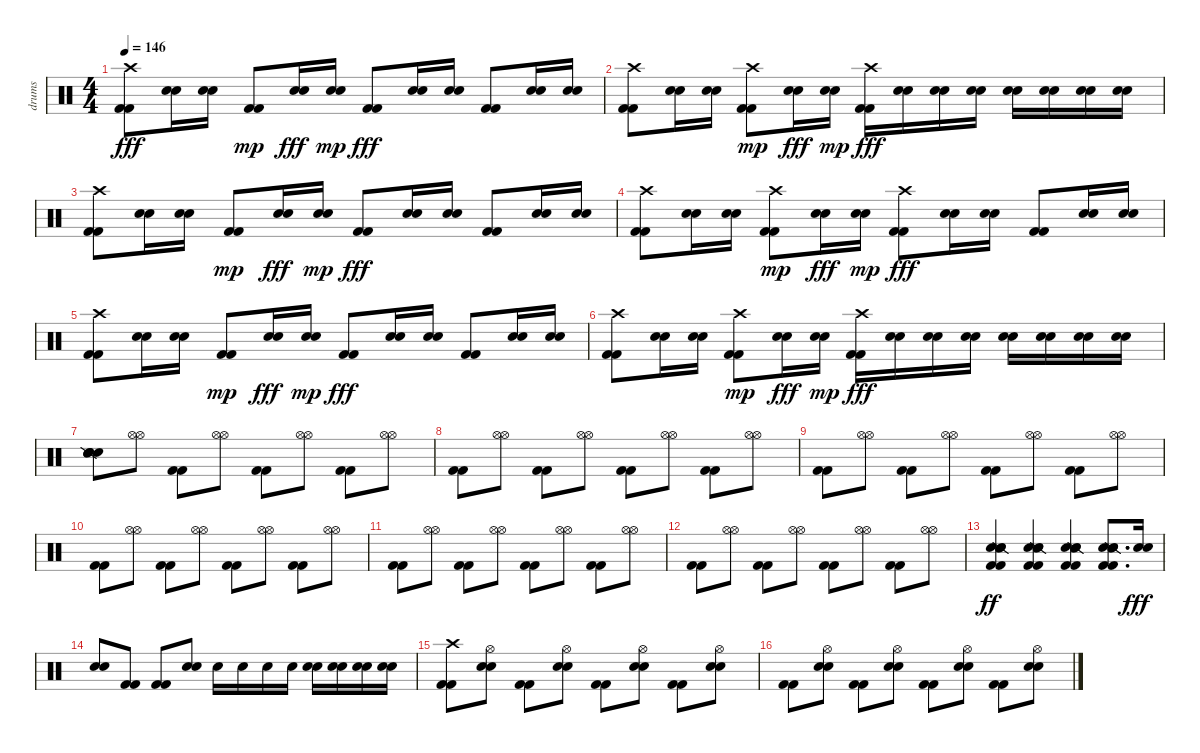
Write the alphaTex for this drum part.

\track ("drums" "drums") {instrument percussion}
\staff {score}
\articulation defaults
\ts (4 4)
\tempo 146
\clef neutral
\ks c
("Crash high (hit)" "Kick (hit) 2" "Kick (hit) 2").8{dy fff} ("Electric Snare (hit)" "Electric Snare (hit)").16 ("Electric Snare (hit)" "Electric Snare (hit)").16 ("Kick (hit) 2" "Kick (hit) 2").8{dy mp} ("Electric Snare (hit)" "Electric Snare (hit)").16{dy fff} ("Electric Snare (hit)" "Electric Snare (hit)").16{dy mp} ("Kick (hit) 2" "Kick (hit) 2").8{dy fff} ("Electric Snare (hit)" "Electric Snare (hit)").16 ("Electric Snare (hit)" "Electric Snare (hit)").16 ("Kick (hit) 2" "Kick (hit) 2").8 ("Electric Snare (hit)" "Electric Snare (hit)").16 ("Electric Snare (hit)" "Electric Snare (hit)").16 |
("Crash high (hit)" "Kick (hit) 2" "Kick (hit) 2").8 ("Electric Snare (hit)" "Electric Snare (hit)").16 ("Electric Snare (hit)" "Electric Snare (hit)").16 ("Crash high (hit)" "Kick (hit) 2" "Kick (hit) 2").8{dy mp} ("Electric Snare (hit)" "Electric Snare (hit)").16{dy fff} ("Electric Snare (hit)" "Electric Snare (hit)").16{dy mp} ("Crash high (hit)" "Kick (hit) 2" "Kick (hit) 2").16{dy fff} ("Electric Snare (hit)" "Electric Snare (hit)").16 ("Electric Snare (hit)" "Electric Snare (hit)").16 ("Electric Snare (hit)" "Electric Snare (hit)").16 ("Electric Snare (hit)" "Electric Snare (hit)").16 ("Electric Snare (hit)" "Electric Snare (hit)").16 ("Electric Snare (hit)" "Electric Snare (hit)").16 ("Electric Snare (hit)" "Electric Snare (hit)").16 |
("Crash high (hit)" "Kick (hit) 2" "Kick (hit) 2").8 ("Electric Snare (hit)" "Electric Snare (hit)").16 ("Electric Snare (hit)" "Electric Snare (hit)").16 ("Kick (hit) 2" "Kick (hit) 2").8{dy mp} ("Electric Snare (hit)" "Electric Snare (hit)").16{dy fff} ("Electric Snare (hit)" "Electric Snare (hit)").16{dy mp} ("Kick (hit) 2" "Kick (hit) 2").8{dy fff} ("Electric Snare (hit)" "Electric Snare (hit)").16 ("Electric Snare (hit)" "Electric Snare (hit)").16 ("Kick (hit) 2" "Kick (hit) 2").8 ("Electric Snare (hit)" "Electric Snare (hit)").16 ("Electric Snare (hit)" "Electric Snare (hit)").16 |
("Crash high (hit)" "Kick (hit) 2" "Kick (hit) 2").8 ("Electric Snare (hit)" "Electric Snare (hit)").16 ("Electric Snare (hit)" "Electric Snare (hit)").16 ("Crash high (hit)" "Kick (hit) 2" "Kick (hit) 2").8{dy mp} ("Electric Snare (hit)" "Electric Snare (hit)").16{dy fff} ("Electric Snare (hit)" "Electric Snare (hit)").16{dy mp} ("Crash high (hit)" "Kick (hit) 2" "Kick (hit) 2").8{dy fff} ("Electric Snare (hit)" "Electric Snare (hit)").16 ("Electric Snare (hit)" "Electric Snare (hit)").16 ("Kick (hit) 2" "Kick (hit) 2").8 ("Electric Snare (hit)" "Electric Snare (hit)").16 ("Electric Snare (hit)" "Electric Snare (hit)").16 |
("Crash high (hit)" "Kick (hit) 2" "Kick (hit) 2").8 ("Electric Snare (hit)" "Electric Snare (hit)").16 ("Electric Snare (hit)" "Electric Snare (hit)").16 ("Kick (hit) 2" "Kick (hit) 2").8{dy mp} ("Electric Snare (hit)" "Electric Snare (hit)").16{dy fff} ("Electric Snare (hit)" "Electric Snare (hit)").16{dy mp} ("Kick (hit) 2" "Kick (hit) 2").8{dy fff} ("Electric Snare (hit)" "Electric Snare (hit)").16 ("Electric Snare (hit)" "Electric Snare (hit)").16 ("Kick (hit) 2" "Kick (hit) 2").8 ("Electric Snare (hit)" "Electric Snare (hit)").16 ("Electric Snare (hit)" "Electric Snare (hit)").16 |
("Crash high (hit)" "Kick (hit) 2" "Kick (hit) 2").8 ("Electric Snare (hit)" "Electric Snare (hit)").16 ("Electric Snare (hit)" "Electric Snare (hit)").16 ("Crash high (hit)" "Kick (hit) 2" "Kick (hit) 2").8{dy mp} ("Electric Snare (hit)" "Electric Snare (hit)").16{dy fff} ("Electric Snare (hit)" "Electric Snare (hit)").16{dy mp} ("Crash high (hit)" "Kick (hit) 2" "Kick (hit) 2").16{dy fff} ("Electric Snare (hit)" "Electric Snare (hit)").16 ("Electric Snare (hit)" "Electric Snare (hit)").16 ("Electric Snare (hit)" "Electric Snare (hit)").16 ("Electric Snare (hit)" "Electric Snare (hit)").16 ("Electric Snare (hit)" "Electric Snare (hit)").16 ("Electric Snare (hit)" "Electric Snare (hit)").16 ("Electric Snare (hit)" "Electric Snare (hit)").16 |
("Electric Snare (hit)" "Electric Snare (hit)" "Snare (side stick) 2" "Snare (side stick) 2" "Electric Snare (hit)").8 ("Hi-Hat (open)" "Hi-Hat (open)").8 ("Kick (hit) 2" "Kick (hit) 2").8 ("Hi-Hat (open)" "Hi-Hat (open)").8 ("Kick (hit) 2" "Kick (hit) 2").8 ("Hi-Hat (open)" "Hi-Hat (open)").8 ("Kick (hit) 2" "Kick (hit) 2").8 ("Hi-Hat (open)" "Hi-Hat (open)").8 |
("Kick (hit) 2" "Kick (hit) 2").8 ("Hi-Hat (open)" "Hi-Hat (open)").8 ("Kick (hit) 2" "Kick (hit) 2").8 ("Hi-Hat (open)" "Hi-Hat (open)").8 ("Kick (hit) 2" "Kick (hit) 2").8 ("Hi-Hat (open)" "Hi-Hat (open)").8 ("Kick (hit) 2" "Kick (hit) 2").8 ("Hi-Hat (open)" "Hi-Hat (open)").8 |
("Kick (hit) 2" "Kick (hit) 2").8 ("Hi-Hat (open)" "Hi-Hat (open)").8 ("Kick (hit) 2" "Kick (hit) 2").8 ("Hi-Hat (open)" "Hi-Hat (open)").8 ("Kick (hit) 2" "Kick (hit) 2").8 ("Hi-Hat (open)" "Hi-Hat (open)").8 ("Kick (hit) 2" "Kick (hit) 2").8 ("Hi-Hat (open)" "Hi-Hat (open)").8 |
("Kick (hit) 2" "Kick (hit) 2").8 ("Hi-Hat (open)" "Hi-Hat (open)").8 ("Kick (hit) 2" "Kick (hit) 2").8 ("Hi-Hat (open)" "Hi-Hat (open)").8 ("Kick (hit) 2" "Kick (hit) 2").8 ("Hi-Hat (open)" "Hi-Hat (open)").8 ("Kick (hit) 2" "Kick (hit) 2").8 ("Hi-Hat (open)" "Hi-Hat (open)").8 |
("Kick (hit) 2" "Kick (hit) 2").8 ("Hi-Hat (open)" "Hi-Hat (open)").8 ("Kick (hit) 2" "Kick (hit) 2").8 ("Hi-Hat (open)" "Hi-Hat (open)").8 ("Kick (hit) 2" "Kick (hit) 2").8 ("Hi-Hat (open)" "Hi-Hat (open)").8 ("Kick (hit) 2" "Kick (hit) 2").8 ("Hi-Hat (open)" "Hi-Hat (open)").8 |
("Kick (hit) 2" "Kick (hit) 2").8 ("Hi-Hat (open)" "Hi-Hat (open)").8 ("Kick (hit) 2" "Kick (hit) 2").8 ("Hi-Hat (open)" "Hi-Hat (open)").8 ("Kick (hit) 2" "Kick (hit) 2").8 ("Hi-Hat (open)" "Hi-Hat (open)").8 ("Kick (hit) 2" "Kick (hit) 2").8 ("Hi-Hat (open)" "Hi-Hat (open)").8 |
("Electric Snare (hit)" "Electric Snare (hit)" "Snare (side stick) 2" "Snare (side stick) 2" "Kick (hit) 2" "Kick (hit) 2").4{dy ff} ("Electric Snare (hit)" "Electric Snare (hit)" "Snare (side stick) 2" "Snare (side stick) 2" "Kick (hit) 2" "Kick (hit) 2").4 ("Electric Snare (hit)" "Electric Snare (hit)" "Snare (side stick) 2" "Snare (side stick) 2" "Kick (hit) 2" "Kick (hit) 2").4 ("Electric Snare (hit)" "Electric Snare (hit)" "Snare (side stick) 2" "Snare (side stick) 2" "Kick (hit) 2" "Kick (hit) 2").8{d} ("Electric Snare (hit)" "Electric Snare (hit)").16{dy fff} |
("Electric Snare (hit)" "Electric Snare (hit)").8 ("Kick (hit) 2" "Kick (hit) 2").8 ("Kick (hit) 2" "Kick (hit) 2").8 ("Electric Snare (hit)" "Electric Snare (hit)").8 "Electric Snare (hit)".16 "Electric Snare (hit)".16 "Electric Snare (hit)".16 "Electric Snare (hit)".16 ("Electric Snare (hit)" "Electric Snare (hit)").16 ("Electric Snare (hit)" "Electric Snare (hit)").16 ("Electric Snare (hit)" "Electric Snare (hit)").16 ("Electric Snare (hit)" "Electric Snare (hit)").16 |
("Crash high (hit)" "Kick (hit) 2" "Kick (hit) 2").8 ("Hi-Hat (open)" "Electric Snare (hit)" "Electric Snare (hit)").8 ("Kick (hit) 2" "Kick (hit) 2").8 ("Hi-Hat (open)" "Electric Snare (hit)" "Electric Snare (hit)").8 ("Kick (hit) 2" "Kick (hit) 2").8 ("Hi-Hat (open)" "Electric Snare (hit)" "Electric Snare (hit)").8 ("Kick (hit) 2" "Kick (hit) 2").8 ("Hi-Hat (open)" "Electric Snare (hit)" "Electric Snare (hit)").8 |
("Kick (hit) 2" "Kick (hit) 2").8 ("Hi-Hat (open)" "Electric Snare (hit)" "Electric Snare (hit)").8 ("Kick (hit) 2" "Kick (hit) 2").8 ("Hi-Hat (open)" "Electric Snare (hit)" "Electric Snare (hit)").8 ("Kick (hit) 2" "Kick (hit) 2").8 ("Hi-Hat (open)" "Electric Snare (hit)" "Electric Snare (hit)").8 ("Kick (hit) 2" "Kick (hit) 2").8 ("Hi-Hat (open)" "Electric Snare (hit)" "Electric Snare (hit)").8
